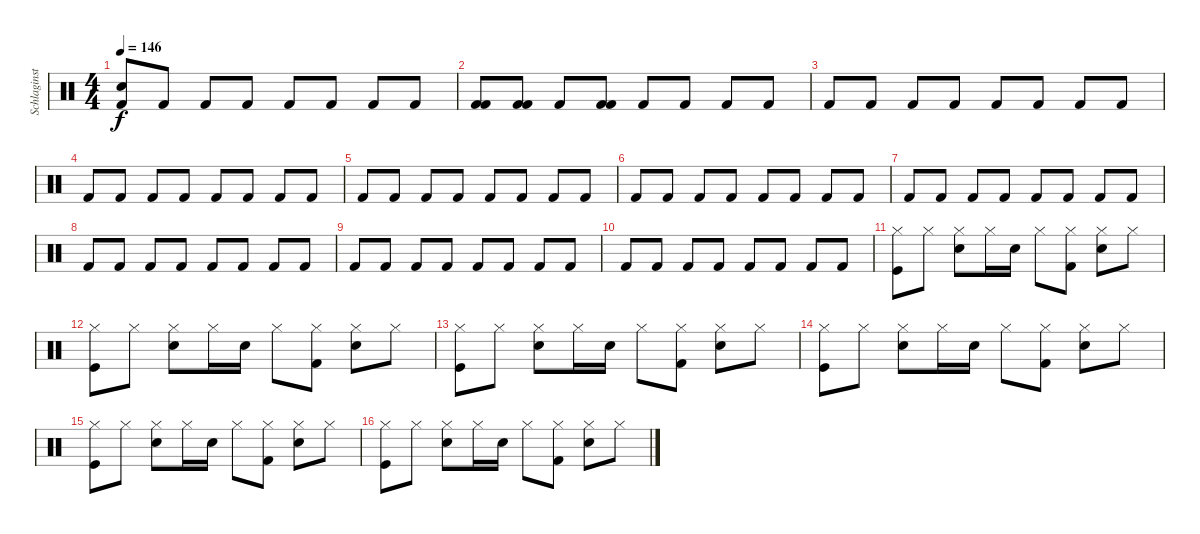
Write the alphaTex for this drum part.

\track ("Schlaginstrumente - Auswahl" "Schlaginst") {instrument percussion}
\staff {score}
\articulation defaults
\ts (4 4)
\tempo 146
\clef neutral
\ks c
("Snare (hit) 2" "Kick (hit) 2").8{dy f} "Kick (hit) 2".8 "Kick (hit) 2".8 "Kick (hit) 2".8 "Kick (hit) 2".8 "Kick (hit) 2".8 "Kick (hit) 2".8 "Kick (hit) 2".8 |
("Kick (hit) 2" "Kick (hit) 2").8 ("Kick (hit) 2" "Kick (hit) 2").8 "Kick (hit) 2".8 ("Kick (hit) 2" "Kick (hit) 2").8 "Kick (hit) 2".8 "Kick (hit) 2".8 "Kick (hit) 2".8 "Kick (hit) 2".8 |
"Kick (hit) 2".8 "Kick (hit) 2".8 "Kick (hit) 2".8 "Kick (hit) 2".8 "Kick (hit) 2".8 "Kick (hit) 2".8 "Kick (hit) 2".8 "Kick (hit) 2".8 |
"Kick (hit) 2".8 "Kick (hit) 2".8 "Kick (hit) 2".8 "Kick (hit) 2".8 "Kick (hit) 2".8 "Kick (hit) 2".8 "Kick (hit) 2".8 "Kick (hit) 2".8 |
"Kick (hit) 2".8 "Kick (hit) 2".8 "Kick (hit) 2".8 "Kick (hit) 2".8 "Kick (hit) 2".8 "Kick (hit) 2".8 "Kick (hit) 2".8 "Kick (hit) 2".8 |
"Kick (hit) 2".8 "Kick (hit) 2".8 "Kick (hit) 2".8 "Kick (hit) 2".8 "Kick (hit) 2".8 "Kick (hit) 2".8 "Kick (hit) 2".8 "Kick (hit) 2".8 |
"Kick (hit) 2".8 "Kick (hit) 2".8 "Kick (hit) 2".8 "Kick (hit) 2".8 "Kick (hit) 2".8 "Kick (hit) 2".8 "Kick (hit) 2".8 "Kick (hit) 2".8 |
"Kick (hit) 2".8 "Kick (hit) 2".8 "Kick (hit) 2".8 "Kick (hit) 2".8 "Kick (hit) 2".8 "Kick (hit) 2".8 "Kick (hit) 2".8 "Kick (hit) 2".8 |
"Kick (hit) 2".8 "Kick (hit) 2".8 "Kick (hit) 2".8 "Kick (hit) 2".8 "Kick (hit) 2".8 "Kick (hit) 2".8 "Kick (hit) 2".8 "Kick (hit) 2".8 |
"Kick (hit) 2".8 "Kick (hit) 2".8 "Kick (hit) 2".8 "Kick (hit) 2".8 "Kick (hit) 2".8 "Kick (hit) 2".8 "Kick (hit) 2".8 "Kick (hit) 2".8 |
("Hi-Hat (closed)" "Kick (hit)").8 "Hi-Hat (closed)".8 ("Hi-Hat (closed)" "Snare (hit) 2").8 "Hi-Hat (closed)".16 "Snare (hit) 2".16 "Hi-Hat (closed)".8 ("Hi-Hat (closed)" "Kick (hit) 2").8 ("Hi-Hat (closed)" "Snare (hit) 2").8 "Hi-Hat (closed)".8 |
("Hi-Hat (closed)" "Kick (hit)").8 "Hi-Hat (closed)".8 ("Hi-Hat (closed)" "Snare (hit) 2").8 "Hi-Hat (closed)".16 "Snare (hit) 2".16 "Hi-Hat (closed)".8 ("Hi-Hat (closed)" "Kick (hit) 2").8 ("Hi-Hat (closed)" "Snare (hit) 2").8 "Hi-Hat (closed)".8 |
("Hi-Hat (closed)" "Kick (hit)").8 "Hi-Hat (closed)".8 ("Hi-Hat (closed)" "Snare (hit) 2").8 "Hi-Hat (closed)".16 "Snare (hit) 2".16 "Hi-Hat (closed)".8 ("Hi-Hat (closed)" "Kick (hit) 2").8 ("Hi-Hat (closed)" "Snare (hit) 2").8 "Hi-Hat (closed)".8 |
("Hi-Hat (closed)" "Kick (hit)").8 "Hi-Hat (closed)".8 ("Hi-Hat (closed)" "Snare (hit) 2").8 "Hi-Hat (closed)".16 "Snare (hit) 2".16 "Hi-Hat (closed)".8 ("Hi-Hat (closed)" "Kick (hit) 2").8 ("Hi-Hat (closed)" "Snare (hit) 2").8 "Hi-Hat (closed)".8 |
("Hi-Hat (closed)" "Kick (hit)").8 "Hi-Hat (closed)".8 ("Hi-Hat (closed)" "Snare (hit) 2").8 "Hi-Hat (closed)".16 "Snare (hit) 2".16 "Hi-Hat (closed)".8 ("Hi-Hat (closed)" "Kick (hit) 2").8 ("Hi-Hat (closed)" "Snare (hit) 2").8 "Hi-Hat (closed)".8 |
("Hi-Hat (closed)" "Kick (hit)").8 "Hi-Hat (closed)".8 ("Hi-Hat (closed)" "Snare (hit) 2").8 "Hi-Hat (closed)".16 "Snare (hit) 2".16 "Hi-Hat (closed)".8 ("Hi-Hat (closed)" "Kick (hit) 2").8 ("Hi-Hat (closed)" "Snare (hit) 2").8 "Hi-Hat (closed)".8
